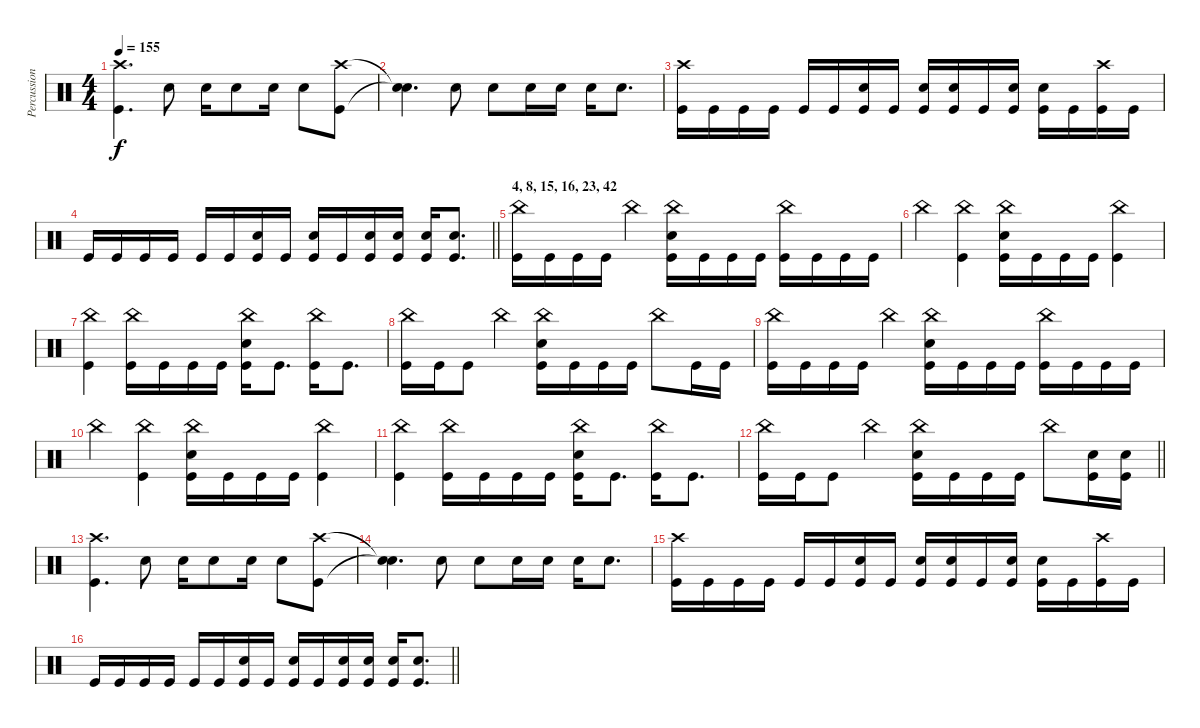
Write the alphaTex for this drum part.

\track ("Percussion" "Percussion") {instrument percussion}
\staff {score}
\articulation defaults
\ts (4 4)
\tempo 155
\clef neutral
\ks c
("Crash high (hit)" "Kick (hit)").4{d dy f} "Electric Snare (hit)".8 "Electric Snare (hit)".16 "Electric Snare (hit)".8 "Electric Snare (hit)".16 "Electric Snare (hit)".8 ("Crash high (hit)" "Kick (hit)").8 |
("Snare (hit)"{t} "Snare (hit)"{t}).4{d} "Electric Snare (hit)".8 "Electric Snare (hit)".8 "Electric Snare (hit)".16 "Electric Snare (hit)".16 "Electric Snare (hit)".16 "Electric Snare (hit)".8{d} |
("Crash high (hit)" "Kick (hit)").16 "Kick (hit)".16 "Kick (hit)".16 "Kick (hit)".16 "Kick (hit)".16 "Kick (hit)".16 ("Electric Snare (hit)" "Kick (hit)").16 "Kick (hit)".16 ("Electric Snare (hit)" "Kick (hit)").16 ("Electric Snare (hit)" "Kick (hit)").16 "Kick (hit)".16 ("Electric Snare (hit)" "Kick (hit)").16 ("Electric Snare (hit)" "Kick (hit)").16 "Kick (hit)".16 ("Crash high (hit)" "Kick (hit)").16 "Kick (hit)".16 |
\barLineRight lightlight "Kick (hit)".16 "Kick (hit)".16 "Kick (hit)".16 "Kick (hit)".16 "Kick (hit)".16 "Kick (hit)".16
("Electric Snare (hit)" "Kick (hit)").16 "Kick (hit)".16 ("Electric Snare (hit)" "Kick (hit)").16 "Kick (hit)".16 ("Electric Snare (hit)" "Kick (hit)").16 ("Electric Snare (hit)" "Kick (hit)").16 ("Electric Snare (hit)" "Kick (hit)").16 ("Electric Snare (hit)" "Kick (hit)").8{d} |
\section ("" "4, 8, 15, 16, 23, 42")
("China (hit)" "Kick (hit)").16 "Kick (hit)".16 "Kick (hit)".16 "Kick (hit)".16 "China (hit)".4 ("China (hit)" "Electric Snare (hit)" "Kick (hit)").16 "Kick (hit)".16 "Kick (hit)".16 "Kick (hit)".16 ("China (hit)" "Kick (hit)").16 "Kick (hit)".16 "Kick (hit)".16 "Kick (hit)".16 |
"China (hit)".4 ("China (hit)" "Kick (hit)").4 ("China (hit)" "Electric Snare (hit)" "Kick (hit)").16 "Kick (hit)".16 "Kick (hit)".16 "Kick (hit)".16 ("China (hit)" "Kick (hit)").4 |
("China (hit)" "Kick (hit)").4 ("China (hit)" "Kick (hit)").16 "Kick (hit)".16 "Kick (hit)".16 "Kick (hit)".16 ("China (hit)" "Electric Snare (hit)" "Kick (hit)").16 "Kick (hit)".8{d} ("China (hit)" "Kick (hit)").16 "Kick (hit)".8{d} |
("China (hit)" "Kick (hit)").16 "Kick (hit)".16 "Kick (hit)".8 "China (hit)".4 ("China (hit)" "Electric Snare (hit)" "Kick (hit)").16 "Kick (hit)".16 "Kick (hit)".16 "Kick (hit)".16 "China (hit)".8 "Kick (hit)".16 "Kick (hit)".16 |
("China (hit)" "Kick (hit)").16 "Kick (hit)".16 "Kick (hit)".16 "Kick (hit)".16 "China (hit)".4 ("China (hit)" "Electric Snare (hit)" "Kick (hit)").16 "Kick (hit)".16 "Kick (hit)".16 "Kick (hit)".16 ("China (hit)" "Kick (hit)").16 "Kick (hit)".16 "Kick (hit)".16 "Kick (hit)".16 |
"China (hit)".4 ("China (hit)" "Kick (hit)").4 ("China (hit)" "Electric Snare (hit)" "Kick (hit)").16 "Kick (hit)".16 "Kick (hit)".16 "Kick (hit)".16 ("China (hit)" "Kick (hit)").4 |
("China (hit)" "Kick (hit)").4 ("China (hit)" "Kick (hit)").16 "Kick (hit)".16 "Kick (hit)".16 "Kick (hit)".16 ("China (hit)" "Electric Snare (hit)" "Kick (hit)").16 "Kick (hit)".8{d} ("China (hit)" "Kick (hit)").16 "Kick (hit)".8{d} |
\barLineRight lightlight
("China (hit)" "Kick (hit)").16 "Kick (hit)".16 "Kick (hit)".8 "China (hit)".4 ("China (hit)" "Electric Snare (hit)" "Kick (hit)").16 "Kick (hit)".16 "Kick (hit)".16 "Kick (hit)".16 "China (hit)".8 ("Electric Snare (hit)" "Kick (hit)").16 ("Electric Snare (hit)" "Kick (hit)").16 |
\section ("" "")
("Crash high (hit)" "Kick (hit)").4{d} "Electric Snare (hit)".8 "Electric Snare (hit)".16 "Electric Snare (hit)".8 "Electric Snare (hit)".16 "Electric Snare (hit)".8 ("Crash high (hit)" "Kick (hit)").8 |
("Snare (hit)"{t} "Snare (hit)"{t}).4{d} "Electric Snare (hit)".8 "Electric Snare (hit)".8 "Electric Snare (hit)".16 "Electric Snare (hit)".16 "Electric Snare (hit)".16 "Electric Snare (hit)".8{d} |
("Crash high (hit)" "Kick (hit)").16 "Kick (hit)".16 "Kick (hit)".16 "Kick (hit)".16 "Kick (hit)".16 "Kick (hit)".16 ("Electric Snare (hit)" "Kick (hit)").16 "Kick (hit)".16 ("Electric Snare (hit)" "Kick (hit)").16 ("Electric Snare (hit)" "Kick (hit)").16 "Kick (hit)".16 ("Electric Snare (hit)" "Kick (hit)").16 ("Electric Snare (hit)" "Kick (hit)").16 "Kick (hit)".16 ("Crash high (hit)" "Kick (hit)").16 "Kick (hit)".16 |
\barLineRight lightlight "Kick (hit)".16 "Kick (hit)".16 "Kick (hit)".16 "Kick (hit)".16 "Kick (hit)".16 "Kick (hit)".16
("Electric Snare (hit)" "Kick (hit)").16 "Kick (hit)".16 ("Electric Snare (hit)" "Kick (hit)").16 "Kick (hit)".16 ("Electric Snare (hit)" "Kick (hit)").16 ("Electric Snare (hit)" "Kick (hit)").16 ("Electric Snare (hit)" "Kick (hit)").16 ("Electric Snare (hit)" "Kick (hit)").8{d}
